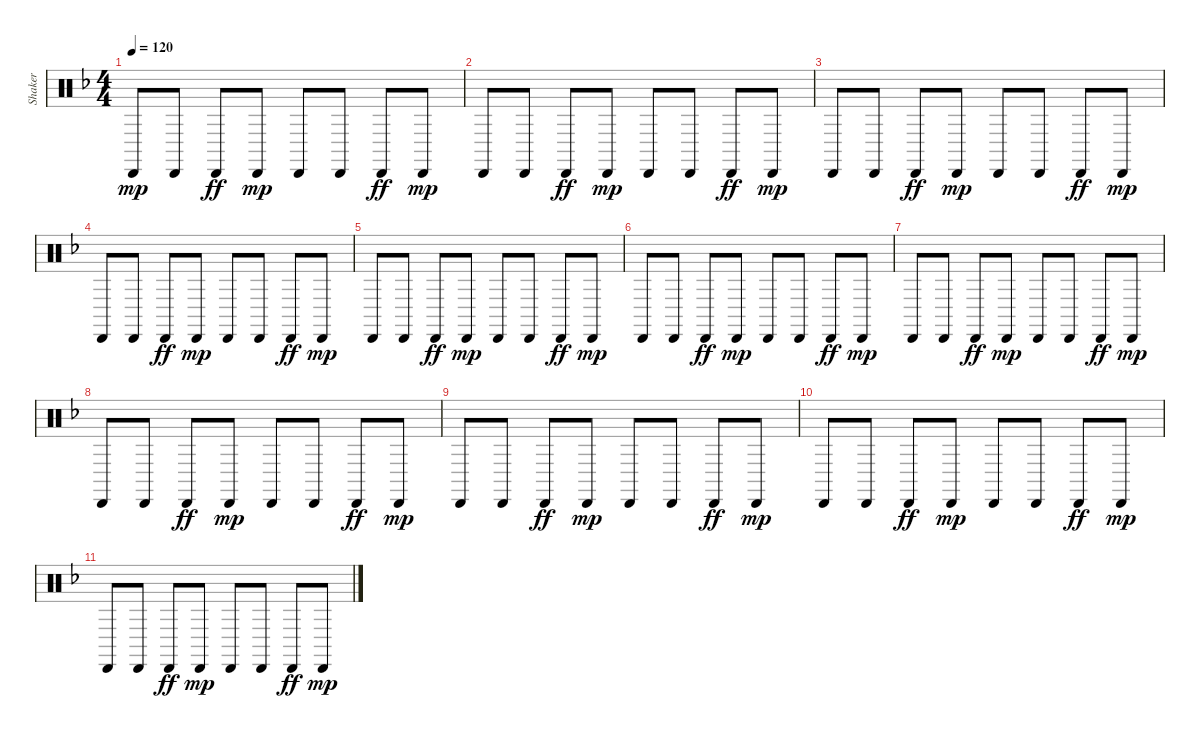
\track ("Shaker" "Shaker") {instrument percussion}
\staff {score}
\articulation defaults
\ts (4 4)
\tempo 120
\clef neutral
\ks f "Cabasa (hit)".8{dy mp} "Cabasa (hit)".8 "Cabasa (hit)".8{dy ff} "Cabasa (hit)".8{dy mp} "Cabasa (hit)".8 "Cabasa (hit)".8 "Cabasa (hit)".8{dy ff} "Cabasa (hit)".8{dy mp}
|
"Cabasa (hit)".8 "Cabasa (hit)".8 "Cabasa (hit)".8{dy ff} "Cabasa (hit)".8{dy mp} "Cabasa (hit)".8 "Cabasa (hit)".8 "Cabasa (hit)".8{dy ff} "Cabasa (hit)".8{dy mp} |
"Cabasa (hit)".8 "Cabasa (hit)".8 "Cabasa (hit)".8{dy ff} "Cabasa (hit)".8{dy mp} "Cabasa (hit)".8 "Cabasa (hit)".8 "Cabasa (hit)".8{dy ff} "Cabasa (hit)".8{dy mp} |
"Cabasa (hit)".8 "Cabasa (hit)".8 "Cabasa (hit)".8{dy ff} "Cabasa (hit)".8{dy mp} "Cabasa (hit)".8 "Cabasa (hit)".8 "Cabasa (hit)".8{dy ff} "Cabasa (hit)".8{dy mp} |
"Cabasa (hit)".8 "Cabasa (hit)".8 "Cabasa (hit)".8{dy ff} "Cabasa (hit)".8{dy mp} "Cabasa (hit)".8 "Cabasa (hit)".8 "Cabasa (hit)".8{dy ff} "Cabasa (hit)".8{dy mp} |
"Cabasa (hit)".8 "Cabasa (hit)".8 "Cabasa (hit)".8{dy ff} "Cabasa (hit)".8{dy mp} "Cabasa (hit)".8 "Cabasa (hit)".8 "Cabasa (hit)".8{dy ff} "Cabasa (hit)".8{dy mp} |
"Cabasa (hit)".8 "Cabasa (hit)".8 "Cabasa (hit)".8{dy ff} "Cabasa (hit)".8{dy mp} "Cabasa (hit)".8 "Cabasa (hit)".8 "Cabasa (hit)".8{dy ff} "Cabasa (hit)".8{dy mp} |
"Cabasa (hit)".8 "Cabasa (hit)".8 "Cabasa (hit)".8{dy ff} "Cabasa (hit)".8{dy mp} "Cabasa (hit)".8 "Cabasa (hit)".8 "Cabasa (hit)".8{dy ff} "Cabasa (hit)".8{dy mp} |
"Cabasa (hit)".8 "Cabasa (hit)".8 "Cabasa (hit)".8{dy ff} "Cabasa (hit)".8{dy mp} "Cabasa (hit)".8 "Cabasa (hit)".8 "Cabasa (hit)".8{dy ff} "Cabasa (hit)".8{dy mp} |
"Cabasa (hit)".8 "Cabasa (hit)".8 "Cabasa (hit)".8{dy ff} "Cabasa (hit)".8{dy mp} "Cabasa (hit)".8 "Cabasa (hit)".8 "Cabasa (hit)".8{dy ff} "Cabasa (hit)".8{dy mp} |
"Cabasa (hit)".8 "Cabasa (hit)".8 "Cabasa (hit)".8{dy ff} "Cabasa (hit)".8{dy mp} "Cabasa (hit)".8 "Cabasa (hit)".8 "Cabasa (hit)".8{dy ff} "Cabasa (hit)".8{dy mp}
